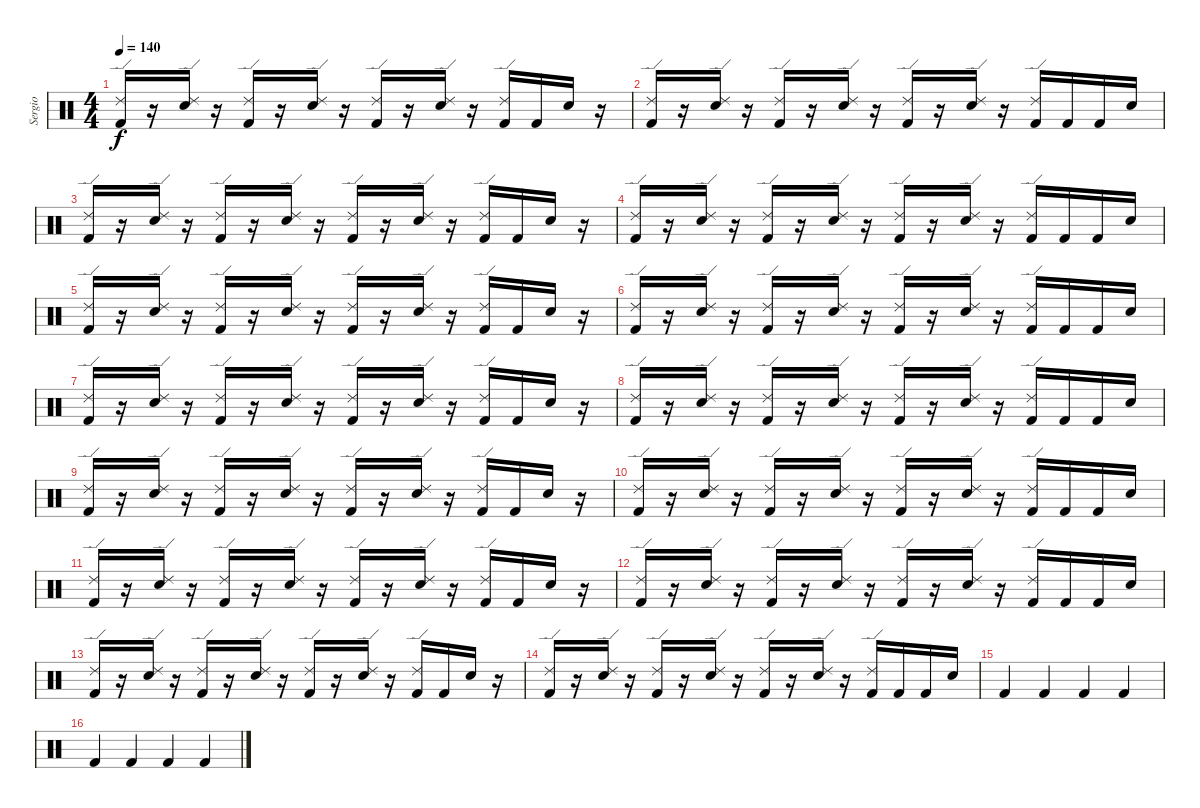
\track ("Sergio" "Sergio") {instrument percussion}
\staff {score}
\articulation defaults
\ts (4 4)
\tempo 140
\clef neutral
\ks c
("Kick (hit) 2" "Ride (edge) 2").16{dy f} r.16 ("Electric Snare (hit)" "Ride (edge) 2").16 r.16 ("Kick (hit) 2" "Ride (edge) 2").16 r.16 ("Electric Snare (hit)" "Ride (edge) 2").16 r.16 ("Kick (hit) 2" "Ride (edge) 2").16 r.16 ("Electric Snare (hit)" "Ride (edge) 2").16 r.16 ("Kick (hit) 2" "Ride (edge) 2").16 "Kick (hit) 2".16 "Electric Snare (hit)".16 r.16 |
("Kick (hit) 2" "Ride (edge) 2").16 r.16 ("Electric Snare (hit)" "Ride (edge) 2").16 r.16 ("Kick (hit) 2" "Ride (edge) 2").16 r.16 ("Electric Snare (hit)" "Ride (edge) 2").16 r.16 ("Kick (hit) 2" "Ride (edge) 2").16 r.16 ("Electric Snare (hit)" "Ride (edge) 2").16 r.16 ("Kick (hit) 2" "Ride (edge) 2").16 "Kick (hit) 2".16 "Kick (hit) 2".16 "Electric Snare (hit)".16 |
("Kick (hit) 2" "Ride (edge) 2").16 r.16 ("Electric Snare (hit)" "Ride (edge) 2").16 r.16 ("Kick (hit) 2" "Ride (edge) 2").16 r.16 ("Electric Snare (hit)" "Ride (edge) 2").16 r.16 ("Kick (hit) 2" "Ride (edge) 2").16 r.16 ("Electric Snare (hit)" "Ride (edge) 2").16 r.16 ("Kick (hit) 2" "Ride (edge) 2").16 "Kick (hit) 2".16 "Electric Snare (hit)".16 r.16 |
("Kick (hit) 2" "Ride (edge) 2").16 r.16 ("Electric Snare (hit)" "Ride (edge) 2").16 r.16 ("Kick (hit) 2" "Ride (edge) 2").16 r.16 ("Electric Snare (hit)" "Ride (edge) 2").16 r.16 ("Kick (hit) 2" "Ride (edge) 2").16 r.16 ("Electric Snare (hit)" "Ride (edge) 2").16 r.16 ("Kick (hit) 2" "Ride (edge) 2").16 "Kick (hit) 2".16 "Kick (hit) 2".16 "Electric Snare (hit)".16 |
("Kick (hit) 2" "Ride (edge) 2").16 r.16 ("Electric Snare (hit)" "Ride (edge) 2").16 r.16 ("Kick (hit) 2" "Ride (edge) 2").16 r.16 ("Electric Snare (hit)" "Ride (edge) 2").16 r.16 ("Kick (hit) 2" "Ride (edge) 2").16 r.16 ("Electric Snare (hit)" "Ride (edge) 2").16 r.16 ("Kick (hit) 2" "Ride (edge) 2").16 "Kick (hit) 2".16 "Electric Snare (hit)".16 r.16 |
("Kick (hit) 2" "Ride (edge) 2").16 r.16 ("Electric Snare (hit)" "Ride (edge) 2").16 r.16 ("Kick (hit) 2" "Ride (edge) 2").16 r.16 ("Electric Snare (hit)" "Ride (edge) 2").16 r.16 ("Kick (hit) 2" "Ride (edge) 2").16 r.16 ("Electric Snare (hit)" "Ride (edge) 2").16 r.16 ("Kick (hit) 2" "Ride (edge) 2").16 "Kick (hit) 2".16 "Kick (hit) 2".16 "Electric Snare (hit)".16 |
("Kick (hit) 2" "Ride (edge) 2").16 r.16 ("Electric Snare (hit)" "Ride (edge) 2").16 r.16 ("Kick (hit) 2" "Ride (edge) 2").16 r.16 ("Electric Snare (hit)" "Ride (edge) 2").16 r.16 ("Kick (hit) 2" "Ride (edge) 2").16 r.16 ("Electric Snare (hit)" "Ride (edge) 2").16 r.16 ("Kick (hit) 2" "Ride (edge) 2").16 "Kick (hit) 2".16 "Electric Snare (hit)".16 r.16 |
("Kick (hit) 2" "Ride (edge) 2").16 r.16 ("Electric Snare (hit)" "Ride (edge) 2").16 r.16 ("Kick (hit) 2" "Ride (edge) 2").16 r.16 ("Electric Snare (hit)" "Ride (edge) 2").16 r.16 ("Kick (hit) 2" "Ride (edge) 2").16 r.16 ("Electric Snare (hit)" "Ride (edge) 2").16 r.16 ("Kick (hit) 2" "Ride (edge) 2").16 "Kick (hit) 2".16 "Kick (hit) 2".16 "Electric Snare (hit)".16 |
("Kick (hit) 2" "Ride (edge) 2").16 r.16 ("Electric Snare (hit)" "Ride (edge) 2").16 r.16 ("Kick (hit) 2" "Ride (edge) 2").16 r.16 ("Electric Snare (hit)" "Ride (edge) 2").16 r.16 ("Kick (hit) 2" "Ride (edge) 2").16 r.16 ("Electric Snare (hit)" "Ride (edge) 2").16 r.16 ("Kick (hit) 2" "Ride (edge) 2").16 "Kick (hit) 2".16 "Electric Snare (hit)".16 r.16 |
("Kick (hit) 2" "Ride (edge) 2").16 r.16 ("Electric Snare (hit)" "Ride (edge) 2").16 r.16 ("Kick (hit) 2" "Ride (edge) 2").16 r.16 ("Electric Snare (hit)" "Ride (edge) 2").16 r.16 ("Kick (hit) 2" "Ride (edge) 2").16 r.16 ("Electric Snare (hit)" "Ride (edge) 2").16 r.16 ("Kick (hit) 2" "Ride (edge) 2").16 "Kick (hit) 2".16 "Kick (hit) 2".16 "Electric Snare (hit)".16 |
("Kick (hit) 2" "Ride (edge) 2").16 r.16 ("Electric Snare (hit)" "Ride (edge) 2").16 r.16 ("Kick (hit) 2" "Ride (edge) 2").16 r.16 ("Electric Snare (hit)" "Ride (edge) 2").16 r.16 ("Kick (hit) 2" "Ride (edge) 2").16 r.16 ("Electric Snare (hit)" "Ride (edge) 2").16 r.16 ("Kick (hit) 2" "Ride (edge) 2").16 "Kick (hit) 2".16 "Electric Snare (hit)".16 r.16 |
("Kick (hit) 2" "Ride (edge) 2").16 r.16 ("Electric Snare (hit)" "Ride (edge) 2").16 r.16 ("Kick (hit) 2" "Ride (edge) 2").16 r.16 ("Electric Snare (hit)" "Ride (edge) 2").16 r.16 ("Kick (hit) 2" "Ride (edge) 2").16 r.16 ("Electric Snare (hit)" "Ride (edge) 2").16 r.16 ("Kick (hit) 2" "Ride (edge) 2").16 "Kick (hit) 2".16 "Kick (hit) 2".16 "Electric Snare (hit)".16 |
("Kick (hit) 2" "Ride (edge) 2").16 r.16 ("Electric Snare (hit)" "Ride (edge) 2").16 r.16 ("Kick (hit) 2" "Ride (edge) 2").16 r.16 ("Electric Snare (hit)" "Ride (edge) 2").16 r.16 ("Kick (hit) 2" "Ride (edge) 2").16 r.16 ("Electric Snare (hit)" "Ride (edge) 2").16 r.16 ("Kick (hit) 2" "Ride (edge) 2").16 "Kick (hit) 2".16 "Electric Snare (hit)".16 r.16 |
("Kick (hit) 2" "Ride (edge) 2").16 r.16 ("Electric Snare (hit)" "Ride (edge) 2").16 r.16 ("Kick (hit) 2" "Ride (edge) 2").16 r.16 ("Electric Snare (hit)" "Ride (edge) 2").16 r.16 ("Kick (hit) 2" "Ride (edge) 2").16 r.16 ("Electric Snare (hit)" "Ride (edge) 2").16 r.16 ("Kick (hit) 2" "Ride (edge) 2").16 "Kick (hit) 2".16 "Kick (hit) 2".16 "Electric Snare (hit)".16 |
"Kick (hit) 2".4 "Kick (hit) 2".4 "Kick (hit) 2".4 "Kick (hit) 2".4 |
"Kick (hit) 2".4 "Kick (hit) 2".4 "Kick (hit) 2".4 "Kick (hit) 2".4
